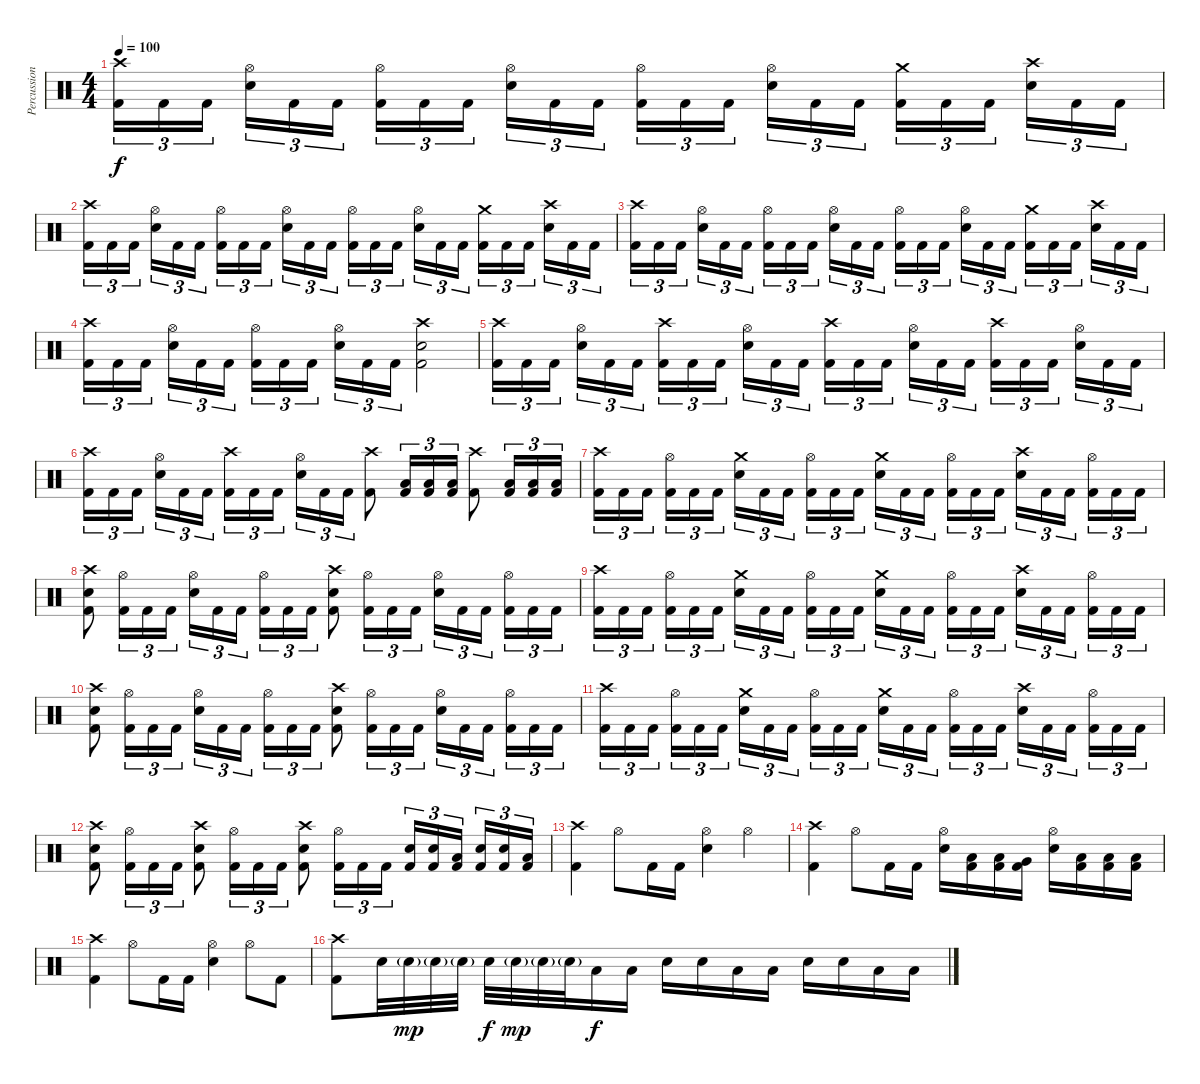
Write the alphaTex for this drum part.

\track ("Percussion" "Percussion") {instrument percussion}
\staff {score}
\articulation defaults
\ts (4 4)
\tempo 100
\clef neutral
\ks c
("Crash high (hit)" "Kick (hit) 2").16{tu (3 2) dy f} "Kick (hit) 2".16{tu (3 2)} "Kick (hit) 2".16{tu (3 2)} ("Hi-Hat (open)" "Electric Snare (hit)").16{tu (3 2)} "Kick (hit) 2".16{tu (3 2)} "Kick (hit) 2".16{tu (3 2)} ("Hi-Hat (open)" "Kick (hit) 2").16{tu (3 2)} "Kick (hit) 2".16{tu (3 2)} "Kick (hit) 2".16{tu (3 2)} ("Hi-Hat (open)" "Electric Snare (hit)").16{tu (3 2)} "Kick (hit) 2".16{tu (3 2)} "Kick (hit) 2".16{tu (3 2)} ("Hi-Hat (open)" "Kick (hit) 2").16{tu (3 2)} "Kick (hit) 2".16{tu (3 2)} "Kick (hit) 2".16{tu (3 2)} ("Hi-Hat (open)" "Electric Snare (hit)").16{tu (3 2)} "Kick (hit) 2".16{tu (3 2)} "Kick (hit) 2".16{tu (3 2)} ("Crash medium (hit)" "Kick (hit) 2").16{tu (3 2)} "Kick (hit) 2".16{tu (3 2)} "Kick (hit) 2".16{tu (3 2)} ("Crash high (hit)" "Electric Snare (hit)").16{tu (3 2)} "Kick (hit) 2".16{tu (3 2)} "Kick (hit) 2".16{tu (3 2)} |
("Crash high (hit)" "Kick (hit) 2").16{tu (3 2)} "Kick (hit) 2".16{tu (3 2)} "Kick (hit) 2".16{tu (3 2)} ("Hi-Hat (open)" "Electric Snare (hit)").16{tu (3 2)} "Kick (hit) 2".16{tu (3 2)} "Kick (hit) 2".16{tu (3 2)} ("Hi-Hat (open)" "Kick (hit) 2").16{tu (3 2)} "Kick (hit) 2".16{tu (3 2)} "Kick (hit) 2".16{tu (3 2)} ("Hi-Hat (open)" "Electric Snare (hit)").16{tu (3 2)} "Kick (hit) 2".16{tu (3 2)} "Kick (hit) 2".16{tu (3 2)} ("Hi-Hat (open)" "Kick (hit) 2").16{tu (3 2)} "Kick (hit) 2".16{tu (3 2)} "Kick (hit) 2".16{tu (3 2)} ("Hi-Hat (open)" "Electric Snare (hit)").16{tu (3 2)} "Kick (hit) 2".16{tu (3 2)} "Kick (hit) 2".16{tu (3 2)} ("Crash medium (hit)" "Kick (hit) 2").16{tu (3 2)} "Kick (hit) 2".16{tu (3 2)} "Kick (hit) 2".16{tu (3 2)} ("Crash high (hit)" "Electric Snare (hit)").16{tu (3 2)} "Kick (hit) 2".16{tu (3 2)} "Kick (hit) 2".16{tu (3 2)} |
("Crash high (hit)" "Kick (hit) 2").16{tu (3 2)} "Kick (hit) 2".16{tu (3 2)} "Kick (hit) 2".16{tu (3 2)} ("Hi-Hat (open)" "Electric Snare (hit)").16{tu (3 2)} "Kick (hit) 2".16{tu (3 2)} "Kick (hit) 2".16{tu (3 2)} ("Hi-Hat (open)" "Kick (hit) 2").16{tu (3 2)} "Kick (hit) 2".16{tu (3 2)} "Kick (hit) 2".16{tu (3 2)} ("Hi-Hat (open)" "Electric Snare (hit)").16{tu (3 2)} "Kick (hit) 2".16{tu (3 2)} "Kick (hit) 2".16{tu (3 2)} ("Hi-Hat (open)" "Kick (hit) 2").16{tu (3 2)} "Kick (hit) 2".16{tu (3 2)} "Kick (hit) 2".16{tu (3 2)} ("Hi-Hat (open)" "Electric Snare (hit)").16{tu (3 2)} "Kick (hit) 2".16{tu (3 2)} "Kick (hit) 2".16{tu (3 2)} ("Crash medium (hit)" "Kick (hit) 2").16{tu (3 2)} "Kick (hit) 2".16{tu (3 2)} "Kick (hit) 2".16{tu (3 2)} ("Crash high (hit)" "Electric Snare (hit)").16{tu (3 2)} "Kick (hit) 2".16{tu (3 2)} "Kick (hit) 2".16{tu (3 2)} |
("Crash high (hit)" "Kick (hit) 2").16{tu (3 2)} "Kick (hit) 2".16{tu (3 2)} "Kick (hit) 2".16{tu (3 2)} ("Hi-Hat (open)" "Electric Snare (hit)").16{tu (3 2)} "Kick (hit) 2".16{tu (3 2)} "Kick (hit) 2".16{tu (3 2)} ("Hi-Hat (open)" "Kick (hit) 2").16{tu (3 2)} "Kick (hit) 2".16{tu (3 2)} "Kick (hit) 2".16{tu (3 2)} ("Hi-Hat (open)" "Electric Snare (hit)").16{tu (3 2)} "Kick (hit) 2".16{tu (3 2)} "Kick (hit) 2".16{tu (3 2)} ("Crash high (hit)" "Electric Snare (hit)" "Kick (hit) 2").2 |
("Crash high (hit)" "Kick (hit) 2").16{tu (3 2)} "Kick (hit) 2".16{tu (3 2)} "Kick (hit) 2".16{tu (3 2)} ("Hi-Hat (open)" "Electric Snare (hit)").16{tu (3 2)} "Kick (hit) 2".16{tu (3 2)} "Kick (hit) 2".16{tu (3 2)} ("Crash high (hit)" "Kick (hit) 2").16{tu (3 2)} "Kick (hit) 2".16{tu (3 2)} "Kick (hit) 2".16{tu (3 2)} ("Hi-Hat (open)" "Electric Snare (hit)").16{tu (3 2)} "Kick (hit) 2".16{tu (3 2)} "Kick (hit) 2".16{tu (3 2)} ("Crash high (hit)" "Kick (hit) 2").16{tu (3 2)} "Kick (hit) 2".16{tu (3 2)} "Kick (hit) 2".16{tu (3 2)} ("Hi-Hat (open)" "Electric Snare (hit)").16{tu (3 2)} "Kick (hit) 2".16{tu (3 2)} "Kick (hit) 2".16{tu (3 2)} ("Crash high (hit)" "Kick (hit) 2").16{tu (3 2)} "Kick (hit) 2".16{tu (3 2)} "Kick (hit) 2".16{tu (3 2)} ("Hi-Hat (open)" "Electric Snare (hit)").16{tu (3 2)} "Kick (hit) 2".16{tu (3 2)} "Kick (hit) 2".16{tu (3 2)} |
("Crash high (hit)" "Kick (hit) 2").16{tu (3 2)} "Kick (hit) 2".16{tu (3 2)} "Kick (hit) 2".16{tu (3 2)} ("Hi-Hat (open)" "Electric Snare (hit)").16{tu (3 2)} "Kick (hit) 2".16{tu (3 2)} "Kick (hit) 2".16{tu (3 2)} ("Crash high (hit)" "Kick (hit) 2").16{tu (3 2)} "Kick (hit) 2".16{tu (3 2)} "Kick (hit) 2".16{tu (3 2)} ("Hi-Hat (open)" "Electric Snare (hit)").16{tu (3 2)} "Kick (hit) 2".16{tu (3 2)} "Kick (hit) 2".16{tu (3 2)} ("Crash high (hit)" "Kick (hit) 2").8 ("Low Tom (hit)" "Kick (hit) 2").16{tu (3 2)} ("Low Tom (hit)" "Kick (hit) 2").16{tu (3 2)} ("Low Tom (hit)" "Kick (hit) 2").16{tu (3 2)} ("Crash high (hit)" "Kick (hit) 2").8 ("Low Tom (hit)" "Kick (hit) 2").16{tu (3 2)} ("Low Tom (hit)" "Kick (hit) 2").16{tu (3 2)} ("Low Tom (hit)" "Kick (hit) 2").16{tu (3 2)} |
("Crash high (hit)" "Kick (hit) 2").16{tu (3 2)} "Kick (hit) 2".16{tu (3 2)} "Kick (hit) 2".16{tu (3 2)} ("Hi-Hat (open)" "Kick (hit) 2").16{tu (3 2)} "Kick (hit) 2".16{tu (3 2)} "Kick (hit) 2".16{tu (3 2)} ("Crash medium (hit)" "Electric Snare (hit)").16{tu (3 2)} "Kick (hit) 2".16{tu (3 2)} "Kick (hit) 2".16{tu (3 2)} ("Hi-Hat (open)" "Kick (hit) 2").16{tu (3 2)} "Kick (hit) 2".16{tu (3 2)} "Kick (hit) 2".16{tu (3 2)} ("Crash medium (hit)" "Electric Snare (hit)").16{tu (3 2)} "Kick (hit) 2".16{tu (3 2)} "Kick (hit) 2".16{tu (3 2)} ("Hi-Hat (open)" "Kick (hit) 2").16{tu (3 2)} "Kick (hit) 2".16{tu (3 2)} "Kick (hit) 2".16{tu (3 2)} ("Crash high (hit)" "Electric Snare (hit)").16{tu (3 2)} "Kick (hit) 2".16{tu (3 2)} "Kick (hit) 2".16{tu (3 2)} ("Hi-Hat (open)" "Kick (hit) 2").16{tu (3 2)} "Kick (hit) 2".16{tu (3 2)} "Kick (hit) 2".16{tu (3 2)} |
("Crash high (hit)" "Electric Snare (hit)" "Kick (hit) 2").8 ("Hi-Hat (open)" "Kick (hit) 2").16{tu (3 2)} "Kick (hit) 2".16{tu (3 2)} "Kick (hit) 2".16{tu (3 2)} ("Hi-Hat (open)" "Electric Snare (hit)").16{tu (3 2)} "Kick (hit) 2".16{tu (3 2)} "Kick (hit) 2".16{tu (3 2)} ("Hi-Hat (open)" "Kick (hit) 2").16{tu (3 2)} "Kick (hit) 2".16{tu (3 2)} "Kick (hit) 2".16{tu (3 2)} ("Crash high (hit)" "Electric Snare (hit)" "Kick (hit) 2").8 ("Hi-Hat (open)" "Kick (hit) 2").16{tu (3 2)} "Kick (hit) 2".16{tu (3 2)} "Kick (hit) 2".16{tu (3 2)} ("Hi-Hat (open)" "Electric Snare (hit)").16{tu (3 2)} "Kick (hit) 2".16{tu (3 2)} "Kick (hit) 2".16{tu (3 2)} ("Hi-Hat (open)" "Kick (hit) 2").16{tu (3 2)} "Kick (hit) 2".16{tu (3 2)} "Kick (hit) 2".16{tu (3 2)} |
("Crash high (hit)" "Kick (hit) 2").16{tu (3 2)} "Kick (hit) 2".16{tu (3 2)} "Kick (hit) 2".16{tu (3 2)} ("Hi-Hat (open)" "Kick (hit) 2").16{tu (3 2)} "Kick (hit) 2".16{tu (3 2)} "Kick (hit) 2".16{tu (3 2)} ("Crash medium (hit)" "Electric Snare (hit)").16{tu (3 2)} "Kick (hit) 2".16{tu (3 2)} "Kick (hit) 2".16{tu (3 2)} ("Hi-Hat (open)" "Kick (hit) 2").16{tu (3 2)} "Kick (hit) 2".16{tu (3 2)} "Kick (hit) 2".16{tu (3 2)} ("Crash medium (hit)" "Electric Snare (hit)").16{tu (3 2)} "Kick (hit) 2".16{tu (3 2)} "Kick (hit) 2".16{tu (3 2)} ("Hi-Hat (open)" "Kick (hit) 2").16{tu (3 2)} "Kick (hit) 2".16{tu (3 2)} "Kick (hit) 2".16{tu (3 2)} ("Crash high (hit)" "Electric Snare (hit)").16{tu (3 2)} "Kick (hit) 2".16{tu (3 2)} "Kick (hit) 2".16{tu (3 2)} ("Hi-Hat (open)" "Kick (hit) 2").16{tu (3 2)} "Kick (hit) 2".16{tu (3 2)} "Kick (hit) 2".16{tu (3 2)} |
("Crash high (hit)" "Electric Snare (hit)" "Kick (hit) 2").8 ("Hi-Hat (open)" "Kick (hit) 2").16{tu (3 2)} "Kick (hit) 2".16{tu (3 2)} "Kick (hit) 2".16{tu (3 2)} ("Hi-Hat (open)" "Electric Snare (hit)").16{tu (3 2)} "Kick (hit) 2".16{tu (3 2)} "Kick (hit) 2".16{tu (3 2)} ("Hi-Hat (open)" "Kick (hit) 2").16{tu (3 2)} "Kick (hit) 2".16{tu (3 2)} "Kick (hit) 2".16{tu (3 2)} ("Crash high (hit)" "Electric Snare (hit)" "Kick (hit) 2").8 ("Hi-Hat (open)" "Kick (hit) 2").16{tu (3 2)} "Kick (hit) 2".16{tu (3 2)} "Kick (hit) 2".16{tu (3 2)} ("Hi-Hat (open)" "Electric Snare (hit)").16{tu (3 2)} "Kick (hit) 2".16{tu (3 2)} "Kick (hit) 2".16{tu (3 2)} ("Hi-Hat (open)" "Kick (hit) 2").16{tu (3 2)} "Kick (hit) 2".16{tu (3 2)} "Kick (hit) 2".16{tu (3 2)} |
("Crash high (hit)" "Kick (hit) 2").16{tu (3 2)} "Kick (hit) 2".16{tu (3 2)} "Kick (hit) 2".16{tu (3 2)} ("Hi-Hat (open)" "Kick (hit) 2").16{tu (3 2)} "Kick (hit) 2".16{tu (3 2)} "Kick (hit) 2".16{tu (3 2)} ("Crash medium (hit)" "Electric Snare (hit)").16{tu (3 2)} "Kick (hit) 2".16{tu (3 2)} "Kick (hit) 2".16{tu (3 2)} ("Hi-Hat (open)" "Kick (hit) 2").16{tu (3 2)} "Kick (hit) 2".16{tu (3 2)} "Kick (hit) 2".16{tu (3 2)} ("Crash medium (hit)" "Electric Snare (hit)").16{tu (3 2)} "Kick (hit) 2".16{tu (3 2)} "Kick (hit) 2".16{tu (3 2)} ("Hi-Hat (open)" "Kick (hit) 2").16{tu (3 2)} "Kick (hit) 2".16{tu (3 2)} "Kick (hit) 2".16{tu (3 2)} ("Crash high (hit)" "Electric Snare (hit)").16{tu (3 2)} "Kick (hit) 2".16{tu (3 2)} "Kick (hit) 2".16{tu (3 2)} ("Hi-Hat (open)" "Kick (hit) 2").16{tu (3 2)} "Kick (hit) 2".16{tu (3 2)} "Kick (hit) 2".16{tu (3 2)} |
("Crash high (hit)" "Electric Snare (hit)" "Kick (hit) 2").8 ("Hi-Hat (open)" "Kick (hit) 2").16{tu (3 2)} "Kick (hit) 2".16{tu (3 2)} "Kick (hit) 2".16{tu (3 2)} ("Crash high (hit)" "Electric Snare (hit)" "Kick (hit) 2").8 ("Hi-Hat (open)" "Kick (hit) 2").16{tu (3 2)} "Kick (hit) 2".16{tu (3 2)} "Kick (hit) 2".16{tu (3 2)} ("Crash high (hit)" "Electric Snare (hit)" "Kick (hit) 2").8 ("Hi-Hat (open)" "Kick (hit) 2").16{tu (3 2)} "Kick (hit) 2".16{tu (3 2)} "Kick (hit) 2".16{tu (3 2)} ("Electric Snare (hit)" "Kick (hit) 2").16{tu (3 2)} ("Electric Snare (hit)" "Kick (hit) 2").16{tu (3 2)} ("Low Tom (hit)" "Kick (hit) 2").16{tu (3 2)} ("Electric Snare (hit)" "Kick (hit) 2").16{tu (3 2)} ("Electric Snare (hit)" "Kick (hit) 2").16{tu (3 2)} ("Low Tom (hit)" "Kick (hit) 2").16{tu (3 2)} |
("Crash high (hit)" "Kick (hit) 2").4 "Hi-Hat (open)".8 "Kick (hit) 2".16 "Kick (hit) 2".16 ("Hi-Hat (open)" "Electric Snare (hit)").4 "Hi-Hat (open)".4 |
("Crash high (hit)" "Kick (hit) 2").4 "Hi-Hat (open)".8 "Kick (hit) 2".16 "Kick (hit) 2".16 ("Hi-Hat (open)" "Electric Snare (hit)").16 ("Low Tom (hit)" "Kick (hit) 2").16 ("Low Tom (hit)" "Kick (hit) 2").16 ("Very Low Tom (hit)" "Kick (hit) 2").16 ("Hi-Hat (open)" "Electric Snare (hit)").16 ("Low Tom (hit)" "Kick (hit) 2").16 ("Low Tom (hit)" "Kick (hit) 2").16 ("Low Tom (hit)" "Kick (hit) 2").16 |
("Crash high (hit)" "Kick (hit) 2").4 "Hi-Hat (open)".8 "Kick (hit) 2".16 "Kick (hit) 2".16 ("Hi-Hat (open)" "Electric Snare (hit)").4 "Hi-Hat (open)".8 "Kick (hit) 2".8 |
("Crash high (hit)" "Kick (hit) 2").8 "Electric Snare (hit)".32 "Electric Snare (hit)"{g}.32{dy mp} "Electric Snare (hit)"{g}.32 "Electric Snare (hit)"{g}.32 "Electric Snare (hit)".32{dy f} "Electric Snare (hit)"{g}.32{dy mp} "Electric Snare (hit)"{g}.32 "Electric Snare (hit)"{g}.32 "Low Tom (hit)".16{dy f} "Low Tom (hit)".16 "Electric Snare (hit)".16 "Electric Snare (hit)".16 "Low Tom (hit)".16 "Low Tom (hit)".16 "Electric Snare (hit)".16 "Electric Snare (hit)".16 "Low Tom (hit)".16 "Low Tom (hit)".16
